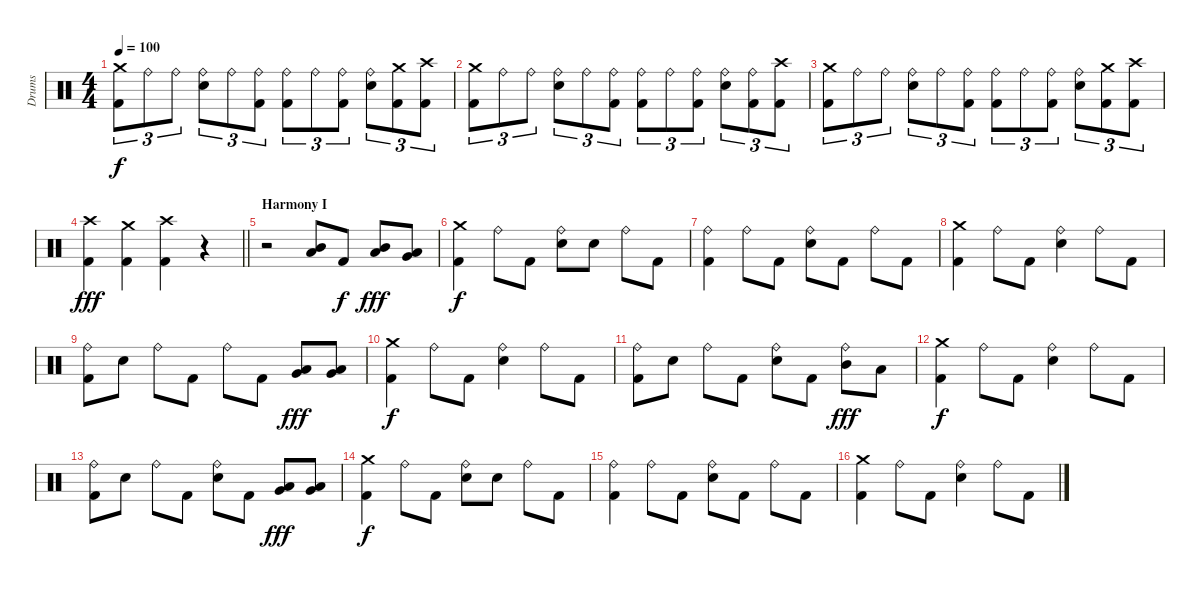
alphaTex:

\track ("Drums" "Drums") {instrument percussion}
\staff {score}
\articulation defaults
\ts (4 4)
\tempo 100
\clef neutral
\ks c
("Crash medium (hit)" "Kick (hit) 2").8{tu (3 2) dy f} "Ride (bell)".8{tu (3 2)} "Ride (bell)".8{tu (3 2)} ("Ride (bell)" "Electric Snare (hit)").8{tu (3 2)} "Ride (bell)".8{tu (3 2)} ("Ride (bell)" "Kick (hit) 2").8{tu (3 2)} ("Ride (bell)" "Kick (hit) 2").8{tu (3 2)} "Ride (bell)".8{tu (3 2)} ("Ride (bell)" "Kick (hit) 2").8{tu (3 2)} ("Ride (bell)" "Electric Snare (hit)").8{tu (3 2)} ("Crash medium (hit)" "Kick (hit) 2").8{tu (3 2)} ("Crash high (hit)" "Kick (hit) 2").8{tu (3 2)} |
("Crash medium (hit)" "Kick (hit) 2").8{tu (3 2)} "Ride (bell)".8{tu (3 2)} "Ride (bell)".8{tu (3 2)} ("Ride (bell)" "Electric Snare (hit)").8{tu (3 2)} "Ride (bell)".8{tu (3 2)} ("Ride (bell)" "Kick (hit) 2").8{tu (3 2)} ("Ride (bell)" "Kick (hit) 2").8{tu (3 2)} "Ride (bell)".8{tu (3 2)} ("Ride (bell)" "Kick (hit) 2").8{tu (3 2)} ("Ride (bell)" "Electric Snare (hit)").8{tu (3 2)} ("Ride (bell)" "Kick (hit) 2").8{tu (3 2)} ("Crash high (hit)" "Kick (hit) 2").8{tu (3 2)} |
("Crash medium (hit)" "Kick (hit) 2").8{tu (3 2)} "Ride (bell)".8{tu (3 2)} "Ride (bell)".8{tu (3 2)} ("Ride (bell)" "Electric Snare (hit)").8{tu (3 2)} "Ride (bell)".8{tu (3 2)} ("Ride (bell)" "Kick (hit) 2").8{tu (3 2)} ("Ride (bell)" "Kick (hit) 2").8{tu (3 2)} "Ride (bell)".8{tu (3 2)} ("Ride (bell)" "Kick (hit) 2").8{tu (3 2)} ("Ride (bell)" "Electric Snare (hit)").8{tu (3 2)} ("Crash medium (hit)" "Kick (hit) 2").8{tu (3 2)} ("Crash high (hit)" "Kick (hit) 2").8{tu (3 2)} |
\barLineRight lightlight
("Crash high (hit)" "Kick (hit) 2").4{dy fff} ("Crash medium (hit)" "Kick (hit) 2").4 ("Crash high (hit)" "Kick (hit) 2").4 r.4 |
\section ("" "Harmony I")
r.2 ("Mid Tom (hit)" "Low Tom (hit)").8 "Kick (hit) 2".8{dy f} ("Mid Tom (hit)" "Low Tom (hit)").8{dy fff} ("Low Tom (hit)" "Very Low Tom (hit)").8 |
("Crash medium (hit)" "Kick (hit) 2").4{dy f} "Ride (bell)".8 "Kick (hit) 2".8 ("Ride (bell)" "Electric Snare (hit)").8 "Electric Snare (hit)".8 "Ride (bell)".8 "Kick (hit) 2".8 |
("Ride (bell)" "Kick (hit) 2").4 "Ride (bell)".8 "Kick (hit) 2".8 ("Ride (bell)" "Electric Snare (hit)").8 "Kick (hit) 2".8 "Ride (bell)".8 "Kick (hit) 2".8 |
("Crash medium (hit)" "Kick (hit) 2").4 "Ride (bell)".8 "Kick (hit) 2".8 ("Ride (bell)" "Electric Snare (hit)").4 "Ride (bell)".8 "Kick (hit) 2".8 |
("Ride (bell)" "Kick (hit) 2").8 "Electric Snare (hit)".8 "Ride (bell)".8 "Kick (hit) 2".8 "Ride (bell)".8 "Kick (hit) 2".8 ("Low Tom (hit)" "Very Low Tom (hit)").8{dy fff} ("Very Low Tom (hit)" "Low Floor Tom (hit)").8 |
("Crash medium (hit)" "Kick (hit) 2").4{dy f} "Ride (bell)".8 "Kick (hit) 2".8 ("Ride (bell)" "Electric Snare (hit)").4 "Ride (bell)".8 "Kick (hit) 2".8 |
("Ride (bell)" "Kick (hit) 2").8 "Electric Snare (hit)".8 "Ride (bell)".8 "Kick (hit) 2".8 ("Ride (bell)" "Electric Snare (hit)").8 "Kick (hit) 2".8 ("Ride (bell)" "Mid Tom (hit)").8{dy fff} "Low Tom (hit)".8 |
("Crash medium (hit)" "Kick (hit) 2").4{dy f} "Ride (bell)".8 "Kick (hit) 2".8 ("Ride (bell)" "Electric Snare (hit)").4 "Ride (bell)".8 "Kick (hit) 2".8 |
("Ride (bell)" "Kick (hit) 2").8 "Electric Snare (hit)".8 "Ride (bell)".8 "Kick (hit) 2".8 ("Ride (bell)" "Electric Snare (hit)").8 "Kick (hit) 2".8 ("Low Tom (hit)" "Very Low Tom (hit)").8{dy fff} ("Low Tom (hit)" "Very Low Tom (hit)").8 |
("Crash medium (hit)" "Kick (hit) 2").4{dy f} "Ride (bell)".8 "Kick (hit) 2".8 ("Ride (bell)" "Electric Snare (hit)").8 "Electric Snare (hit)".8 "Ride (bell)".8 "Kick (hit) 2".8 |
("Ride (bell)" "Kick (hit) 2").4 "Ride (bell)".8 "Kick (hit) 2".8 ("Ride (bell)" "Electric Snare (hit)").8 "Kick (hit) 2".8 "Ride (bell)".8 "Kick (hit) 2".8 |
("Crash medium (hit)" "Kick (hit) 2").4 "Ride (bell)".8 "Kick (hit) 2".8 ("Ride (bell)" "Electric Snare (hit)").4 "Ride (bell)".8 "Kick (hit) 2".8
